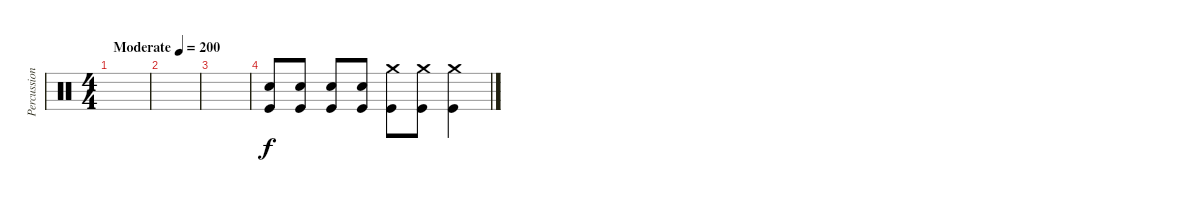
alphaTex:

\track ("Percussion" "Percussion") {instrument percussion}
\staff {score}
\articulation defaults
\ts (4 4)
\tempo (200 "Moderate")
\clef neutral
\ks c
|
|
|
("Snare (hit) 2" "Kick (hit)").8 ("Snare (hit) 2" "Kick (hit)").8 ("Snare (hit) 2" "Kick (hit)").8 ("Snare (hit) 2" "Kick (hit)").8 ("Crash medium (hit)" "Kick (hit)").8 ("Crash medium (hit)" "Kick (hit)").8 ("Crash medium (hit)" "Kick (hit)").4
